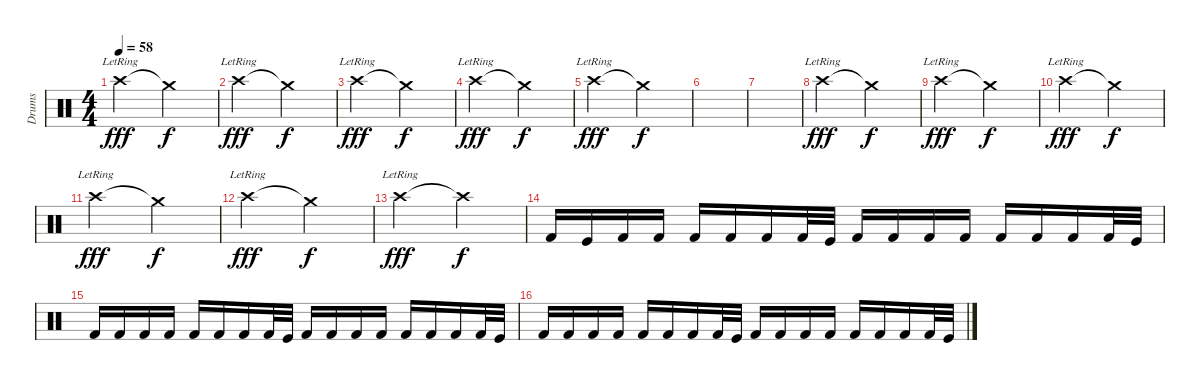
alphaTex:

\track ("Drums " "Drums ") {instrument percussion}
\staff {score}
\articulation defaults
\ts (4 4)
\tempo 58
\clef neutral
\ks c "Crash high (hit)"{lr}.2{dy fff} "Crash medium (hit)"{t}.2{dy f}
|
"Crash high (hit)"{lr}.2{dy fff} "Crash medium (hit)"{t}.2{dy f} |
"Crash high (hit)"{lr}.2{dy fff} "Crash medium (hit)"{t}.2{dy f} |
"Crash high (hit)"{lr}.2{dy fff} "Crash medium (hit)"{t}.2{dy f} |
"Crash high (hit)"{lr}.2{dy fff} "Crash medium (hit)"{t}.2{dy f} |
|
|
"Crash high (hit)"{lr}.2{dy fff} "Crash medium (hit)"{t}.2{dy f} |
"Crash high (hit)"{lr}.2{dy fff} "Crash medium (hit)"{t}.2{dy f} |
"Crash high (hit)"{lr}.2{dy fff} "Crash medium (hit)"{t}.2{dy f} |
"Crash high (hit)"{lr}.2{dy fff} "Crash medium (hit)"{t}.2{dy f} |
"Crash high (hit)"{lr}.2{dy fff} "Crash medium (hit)"{t}.2{dy f} |
"Crash high (hit)"{lr}.2{dy fff} "Crash high (hit)"{t}.2{dy f} |
"Kick (hit) 2".16 "Kick (hit)".16 "Kick (hit) 2".16 "Kick (hit) 2".16 "Kick (hit) 2".16 "Kick (hit) 2".16 "Kick (hit) 2".16 "Kick (hit) 2".32 "Kick (hit)".32 "Kick (hit) 2".16 "Kick (hit) 2".16 "Kick (hit) 2".16 "Kick (hit) 2".16 "Kick (hit) 2".16 "Kick (hit) 2".16 "Kick (hit) 2".16 "Kick (hit) 2".32 "Kick (hit)".32 |
"Kick (hit) 2".16 "Kick (hit) 2".16 "Kick (hit) 2".16 "Kick (hit) 2".16 "Kick (hit) 2".16 "Kick (hit) 2".16 "Kick (hit) 2".16 "Kick (hit) 2".32 "Kick (hit)".32 "Kick (hit) 2".16 "Kick (hit) 2".16 "Kick (hit) 2".16 "Kick (hit) 2".16 "Kick (hit) 2".16 "Kick (hit) 2".16 "Kick (hit) 2".16 "Kick (hit) 2".32 "Kick (hit)".32 |
"Kick (hit) 2".16 "Kick (hit) 2".16 "Kick (hit) 2".16 "Kick (hit) 2".16 "Kick (hit) 2".16 "Kick (hit) 2".16 "Kick (hit) 2".16 "Kick (hit) 2".32 "Kick (hit)".32 "Kick (hit) 2".16 "Kick (hit) 2".16 "Kick (hit) 2".16 "Kick (hit) 2".16 "Kick (hit) 2".16 "Kick (hit) 2".16 "Kick (hit) 2".16 "Kick (hit) 2".32 "Kick (hit)".32
